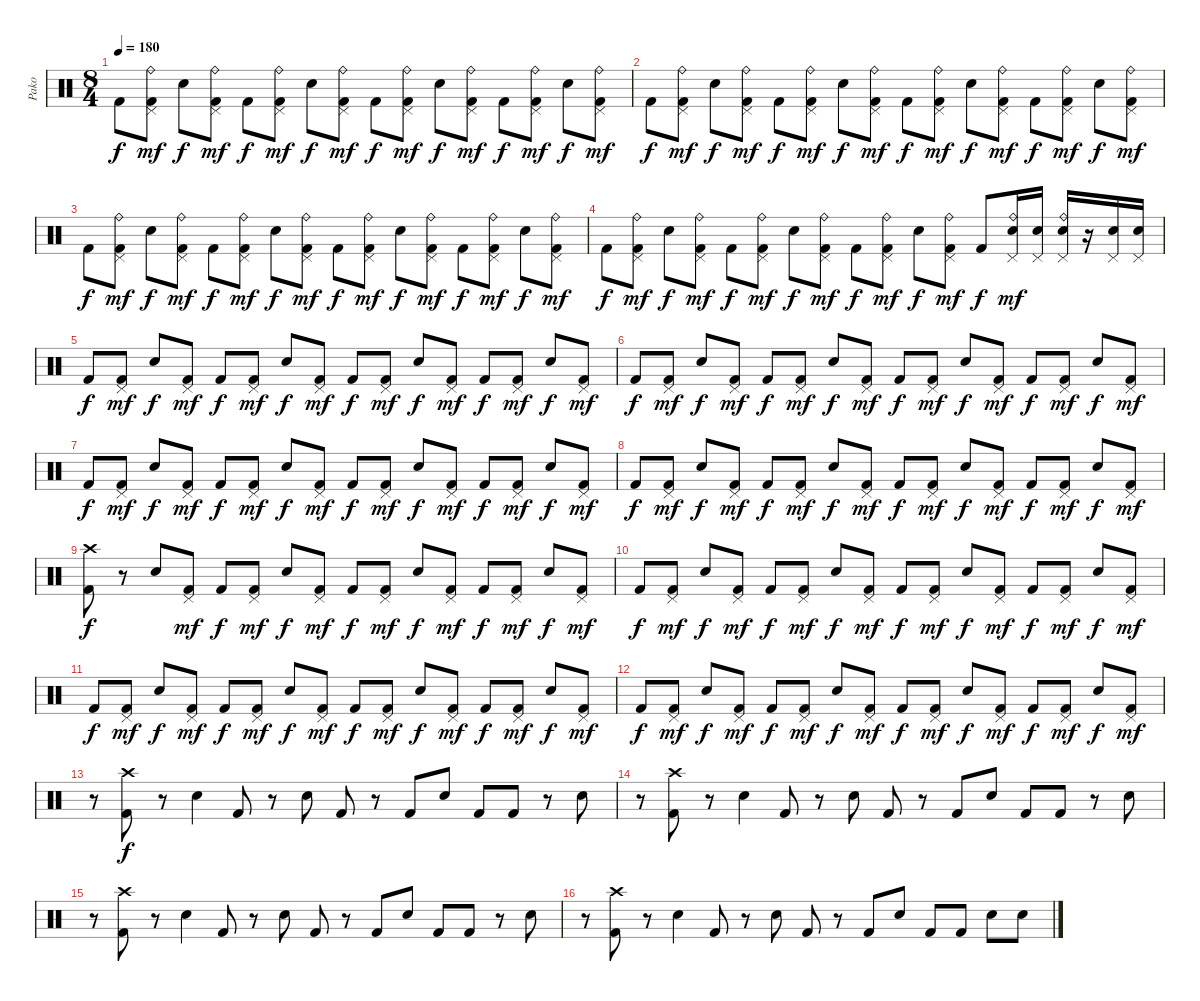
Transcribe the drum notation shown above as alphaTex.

\track ("Pako" "Pako") {instrument percussion}
\staff {score}
\articulation defaults
\ts (8 4)
\tempo 180
\clef neutral
\ks c "Kick (hit) 2".8{dy f}
("Pedal Hi-Hat (hit)" "Ride (bell)" "Kick (hit) 2").8{dy mf} "Electric Snare (hit)".8{dy f} ("Pedal Hi-Hat (hit)" "Ride (bell)" "Kick (hit) 2").8{dy mf} "Kick (hit) 2".8{dy f} ("Pedal Hi-Hat (hit)" "Ride (bell)" "Kick (hit) 2").8{dy mf} "Electric Snare (hit)".8{dy f} ("Pedal Hi-Hat (hit)" "Ride (bell)" "Kick (hit) 2").8{dy mf} "Kick (hit) 2".8{dy f} ("Pedal Hi-Hat (hit)" "Ride (bell)" "Kick (hit) 2").8{dy mf} "Electric Snare (hit)".8{dy f} ("Pedal Hi-Hat (hit)" "Ride (bell)" "Kick (hit) 2").8{dy mf} "Kick (hit) 2".8{dy f} ("Pedal Hi-Hat (hit)" "Ride (bell)" "Kick (hit) 2").8{dy mf} "Electric Snare (hit)".8{dy f} ("Pedal Hi-Hat (hit)" "Ride (bell)" "Kick (hit) 2").8{dy mf} |
"Kick (hit) 2".8{dy f} ("Pedal Hi-Hat (hit)" "Ride (bell)" "Kick (hit) 2").8{dy mf} "Electric Snare (hit)".8{dy f} ("Pedal Hi-Hat (hit)" "Ride (bell)" "Kick (hit) 2").8{dy mf} "Kick (hit) 2".8{dy f} ("Pedal Hi-Hat (hit)" "Ride (bell)" "Kick (hit) 2").8{dy mf} "Electric Snare (hit)".8{dy f} ("Pedal Hi-Hat (hit)" "Ride (bell)" "Kick (hit) 2").8{dy mf} "Kick (hit) 2".8{dy f} ("Pedal Hi-Hat (hit)" "Ride (bell)" "Kick (hit) 2").8{dy mf} "Electric Snare (hit)".8{dy f} ("Pedal Hi-Hat (hit)" "Ride (bell)" "Kick (hit) 2").8{dy mf} "Kick (hit) 2".8{dy f} ("Pedal Hi-Hat (hit)" "Ride (bell)" "Kick (hit) 2").8{dy mf} "Electric Snare (hit)".8{dy f} ("Pedal Hi-Hat (hit)" "Ride (bell)" "Kick (hit) 2").8{dy mf} |
"Kick (hit) 2".8{dy f} ("Pedal Hi-Hat (hit)" "Ride (bell)" "Kick (hit) 2").8{dy mf} "Electric Snare (hit)".8{dy f} ("Pedal Hi-Hat (hit)" "Ride (bell)" "Kick (hit) 2").8{dy mf} "Kick (hit) 2".8{dy f} ("Pedal Hi-Hat (hit)" "Ride (bell)" "Kick (hit) 2").8{dy mf} "Electric Snare (hit)".8{dy f} ("Pedal Hi-Hat (hit)" "Ride (bell)" "Kick (hit) 2").8{dy mf} "Kick (hit) 2".8{dy f} ("Pedal Hi-Hat (hit)" "Ride (bell)" "Kick (hit) 2").8{dy mf} "Electric Snare (hit)".8{dy f} ("Pedal Hi-Hat (hit)" "Ride (bell)" "Kick (hit) 2").8{dy mf} "Kick (hit) 2".8{dy f} ("Pedal Hi-Hat (hit)" "Ride (bell)" "Kick (hit) 2").8{dy mf} "Electric Snare (hit)".8{dy f} ("Pedal Hi-Hat (hit)" "Ride (bell)" "Kick (hit) 2").8{dy mf} |
"Kick (hit) 2".8{dy f} ("Pedal Hi-Hat (hit)" "Ride (bell)" "Kick (hit) 2").8{dy mf} "Electric Snare (hit)".8{dy f} ("Pedal Hi-Hat (hit)" "Ride (bell)" "Kick (hit) 2").8{dy mf} "Kick (hit) 2".8{dy f} ("Pedal Hi-Hat (hit)" "Ride (bell)" "Kick (hit) 2").8{dy mf} "Electric Snare (hit)".8{dy f} ("Pedal Hi-Hat (hit)" "Ride (bell)" "Kick (hit) 2").8{dy mf} "Kick (hit) 2".8{dy f} ("Pedal Hi-Hat (hit)" "Ride (bell)" "Kick (hit) 2").8{dy mf} "Electric Snare (hit)".8{dy f} ("Pedal Hi-Hat (hit)" "Ride (bell)" "Kick (hit) 2").8{dy mf} "Kick (hit) 2".8{dy f} ("Ride (bell)" "Electric Snare (hit)" "Pedal Hi-Hat (hit)").16{dy mf} ("Electric Snare (hit)" "Pedal Hi-Hat (hit)").16 ("Ride (bell)" "Electric Snare (hit)" "Pedal Hi-Hat (hit)").16 r.16 ("Electric Snare (hit)" "Pedal Hi-Hat (hit)").16 ("Electric Snare (hit)" "Pedal Hi-Hat (hit)").16 |
"Kick (hit) 2".8{dy f} ("Pedal Hi-Hat (hit)" "Kick (hit) 2").8{dy mf} "Electric Snare (hit)".8{dy f} ("Pedal Hi-Hat (hit)" "Kick (hit) 2").8{dy mf} "Kick (hit) 2".8{dy f} ("Pedal Hi-Hat (hit)" "Kick (hit) 2").8{dy mf} "Electric Snare (hit)".8{dy f} ("Pedal Hi-Hat (hit)" "Kick (hit) 2").8{dy mf} "Kick (hit) 2".8{dy f} ("Pedal Hi-Hat (hit)" "Kick (hit) 2").8{dy mf} "Electric Snare (hit)".8{dy f} ("Pedal Hi-Hat (hit)" "Kick (hit) 2").8{dy mf} "Kick (hit) 2".8{dy f} ("Pedal Hi-Hat (hit)" "Kick (hit) 2").8{dy mf} "Electric Snare (hit)".8{dy f} ("Pedal Hi-Hat (hit)" "Kick (hit) 2").8{dy mf} |
"Kick (hit) 2".8{dy f} ("Pedal Hi-Hat (hit)" "Kick (hit) 2").8{dy mf} "Electric Snare (hit)".8{dy f} ("Pedal Hi-Hat (hit)" "Kick (hit) 2").8{dy mf} "Kick (hit) 2".8{dy f} ("Pedal Hi-Hat (hit)" "Kick (hit) 2").8{dy mf} "Electric Snare (hit)".8{dy f} ("Pedal Hi-Hat (hit)" "Kick (hit) 2").8{dy mf} "Kick (hit) 2".8{dy f} ("Pedal Hi-Hat (hit)" "Kick (hit) 2").8{dy mf} "Electric Snare (hit)".8{dy f} ("Pedal Hi-Hat (hit)" "Kick (hit) 2").8{dy mf} "Kick (hit) 2".8{dy f} ("Pedal Hi-Hat (hit)" "Kick (hit) 2").8{dy mf} "Electric Snare (hit)".8{dy f} ("Pedal Hi-Hat (hit)" "Kick (hit) 2").8{dy mf} |
"Kick (hit) 2".8{dy f} ("Pedal Hi-Hat (hit)" "Kick (hit) 2").8{dy mf} "Electric Snare (hit)".8{dy f} ("Pedal Hi-Hat (hit)" "Kick (hit) 2").8{dy mf} "Kick (hit) 2".8{dy f} ("Pedal Hi-Hat (hit)" "Kick (hit) 2").8{dy mf} "Electric Snare (hit)".8{dy f} ("Pedal Hi-Hat (hit)" "Kick (hit) 2").8{dy mf} "Kick (hit) 2".8{dy f} ("Pedal Hi-Hat (hit)" "Kick (hit) 2").8{dy mf} "Electric Snare (hit)".8{dy f} ("Pedal Hi-Hat (hit)" "Kick (hit) 2").8{dy mf} "Kick (hit) 2".8{dy f} ("Pedal Hi-Hat (hit)" "Kick (hit) 2").8{dy mf} "Electric Snare (hit)".8{dy f} ("Pedal Hi-Hat (hit)" "Kick (hit) 2").8{dy mf} |
"Kick (hit) 2".8{dy f} ("Pedal Hi-Hat (hit)" "Kick (hit) 2").8{dy mf} "Electric Snare (hit)".8{dy f} ("Pedal Hi-Hat (hit)" "Kick (hit) 2").8{dy mf} "Kick (hit) 2".8{dy f} ("Pedal Hi-Hat (hit)" "Kick (hit) 2").8{dy mf} "Electric Snare (hit)".8{dy f} ("Pedal Hi-Hat (hit)" "Kick (hit) 2").8{dy mf} "Kick (hit) 2".8{dy f} ("Pedal Hi-Hat (hit)" "Kick (hit) 2").8{dy mf} "Electric Snare (hit)".8{dy f} ("Pedal Hi-Hat (hit)" "Kick (hit) 2").8{dy mf} "Kick (hit) 2".8{dy f} ("Pedal Hi-Hat (hit)" "Kick (hit) 2").8{dy mf} "Electric Snare (hit)".8{dy f} ("Pedal Hi-Hat (hit)" "Kick (hit) 2").8{dy mf} |
("Crash high (hit)" "Kick (hit) 2").8{dy f} r.8 "Electric Snare (hit)".8 ("Pedal Hi-Hat (hit)" "Kick (hit) 2").8{dy mf} "Kick (hit) 2".8{dy f} ("Pedal Hi-Hat (hit)" "Kick (hit) 2").8{dy mf} "Electric Snare (hit)".8{dy f} ("Pedal Hi-Hat (hit)" "Kick (hit) 2").8{dy mf} "Kick (hit) 2".8{dy f} ("Pedal Hi-Hat (hit)" "Kick (hit) 2").8{dy mf} "Electric Snare (hit)".8{dy f} ("Pedal Hi-Hat (hit)" "Kick (hit) 2").8{dy mf} "Kick (hit) 2".8{dy f} ("Pedal Hi-Hat (hit)" "Kick (hit) 2").8{dy mf} "Electric Snare (hit)".8{dy f} ("Pedal Hi-Hat (hit)" "Kick (hit) 2").8{dy mf} |
"Kick (hit) 2".8{dy f} ("Pedal Hi-Hat (hit)" "Kick (hit) 2").8{dy mf} "Electric Snare (hit)".8{dy f} ("Pedal Hi-Hat (hit)" "Kick (hit) 2").8{dy mf} "Kick (hit) 2".8{dy f} ("Pedal Hi-Hat (hit)" "Kick (hit) 2").8{dy mf} "Electric Snare (hit)".8{dy f} ("Pedal Hi-Hat (hit)" "Kick (hit) 2").8{dy mf} "Kick (hit) 2".8{dy f} ("Pedal Hi-Hat (hit)" "Kick (hit) 2").8{dy mf} "Electric Snare (hit)".8{dy f} ("Pedal Hi-Hat (hit)" "Kick (hit) 2").8{dy mf} "Kick (hit) 2".8{dy f} ("Pedal Hi-Hat (hit)" "Kick (hit) 2").8{dy mf} "Electric Snare (hit)".8{dy f} ("Pedal Hi-Hat (hit)" "Kick (hit) 2").8{dy mf} |
"Kick (hit) 2".8{dy f} ("Pedal Hi-Hat (hit)" "Kick (hit) 2").8{dy mf} "Electric Snare (hit)".8{dy f} ("Pedal Hi-Hat (hit)" "Kick (hit) 2").8{dy mf} "Kick (hit) 2".8{dy f} ("Pedal Hi-Hat (hit)" "Kick (hit) 2").8{dy mf} "Electric Snare (hit)".8{dy f} ("Pedal Hi-Hat (hit)" "Kick (hit) 2").8{dy mf} "Kick (hit) 2".8{dy f} ("Pedal Hi-Hat (hit)" "Kick (hit) 2").8{dy mf} "Electric Snare (hit)".8{dy f} ("Pedal Hi-Hat (hit)" "Kick (hit) 2").8{dy mf} "Kick (hit) 2".8{dy f} ("Pedal Hi-Hat (hit)" "Kick (hit) 2").8{dy mf} "Electric Snare (hit)".8{dy f} ("Pedal Hi-Hat (hit)" "Kick (hit) 2").8{dy mf} |
"Kick (hit) 2".8{dy f} ("Pedal Hi-Hat (hit)" "Kick (hit) 2").8{dy mf} "Electric Snare (hit)".8{dy f} ("Pedal Hi-Hat (hit)" "Kick (hit) 2").8{dy mf} "Kick (hit) 2".8{dy f} ("Pedal Hi-Hat (hit)" "Kick (hit) 2").8{dy mf} "Electric Snare (hit)".8{dy f} ("Pedal Hi-Hat (hit)" "Kick (hit) 2").8{dy mf} "Kick (hit) 2".8{dy f} ("Pedal Hi-Hat (hit)" "Kick (hit) 2").8{dy mf} "Electric Snare (hit)".8{dy f} ("Pedal Hi-Hat (hit)" "Kick (hit) 2").8{dy mf} "Kick (hit) 2".8{dy f} ("Pedal Hi-Hat (hit)" "Kick (hit) 2").8{dy mf} "Electric Snare (hit)".8{dy f} ("Pedal Hi-Hat (hit)" "Kick (hit) 2").8{dy mf} |
r.8 ("Kick (hit) 2" "Crash high (hit)").8{dy f} r.8 "Electric Snare (hit)".4 "Kick (hit) 2".8 r.8 "Electric Snare (hit)".8 "Kick (hit) 2".8 r.8 "Kick (hit) 2".8 "Electric Snare (hit)".8 "Kick (hit) 2".8 "Kick (hit) 2".8 r.8 "Electric Snare (hit)".8 |
r.8 ("Kick (hit) 2" "Crash high (hit)").8 r.8 "Electric Snare (hit)".4 "Kick (hit) 2".8 r.8 "Electric Snare (hit)".8 "Kick (hit) 2".8 r.8 "Kick (hit) 2".8 "Electric Snare (hit)".8 "Kick (hit) 2".8 "Kick (hit) 2".8 r.8 "Electric Snare (hit)".8 |
r.8 ("Kick (hit) 2" "Crash high (hit)").8 r.8 "Electric Snare (hit)".4 "Kick (hit) 2".8 r.8 "Electric Snare (hit)".8 "Kick (hit) 2".8 r.8 "Kick (hit) 2".8 "Electric Snare (hit)".8 "Kick (hit) 2".8 "Kick (hit) 2".8 r.8 "Electric Snare (hit)".8 |
r.8 ("Kick (hit) 2" "Crash high (hit)").8 r.8 "Electric Snare (hit)".4 "Kick (hit) 2".8 r.8 "Electric Snare (hit)".8 "Kick (hit) 2".8 r.8 "Kick (hit) 2".8 "Electric Snare (hit)".8 "Kick (hit) 2".8 "Kick (hit) 2".8 "Electric Snare (hit)".8 "Electric Snare (hit)".8
